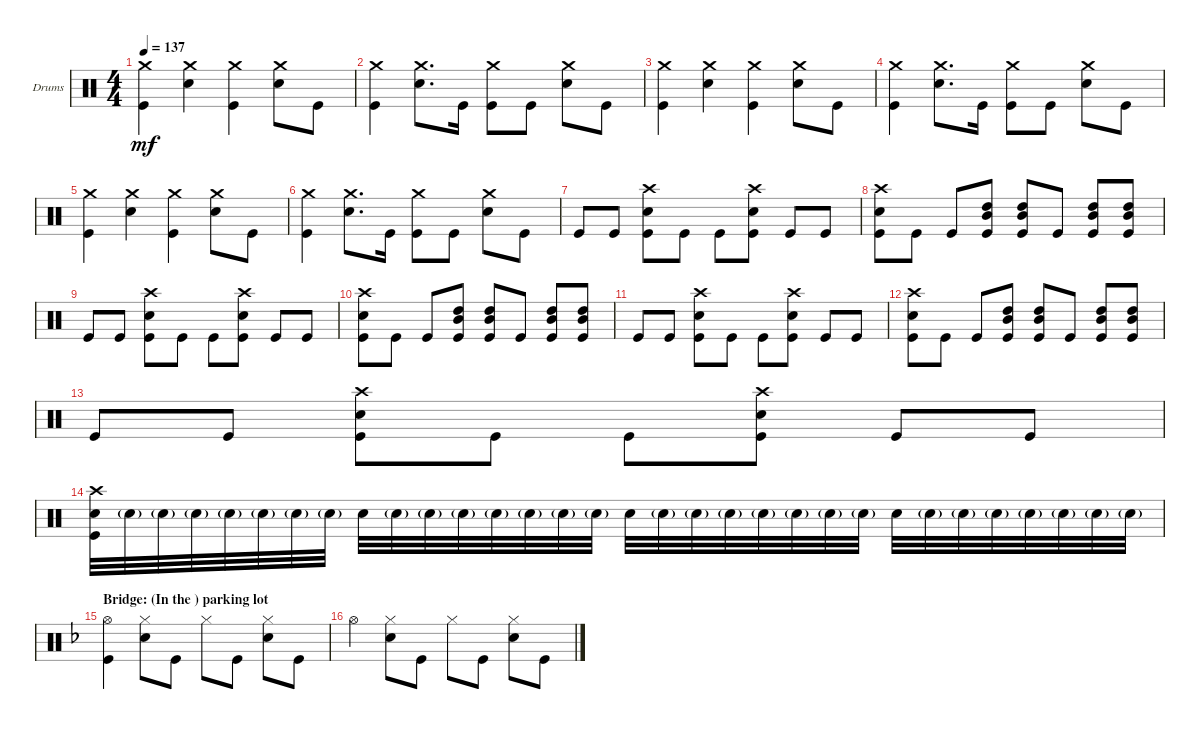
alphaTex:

\defaultSystemsLayout 4
\bracketExtendMode groupsimilarinstruments
\firstSystemTrackNameOrientation horizontal
\otherSystemsTrackNameOrientation horizontal
\track ("Drumkit" "Drums") {instrument percussion}
\staff {score}
\articulation defaults
\ts (4 4)
\tempo 137
\clef neutral
\ks c
("Kick (hit)" "Crash medium (hit)").4{dy mf} ("Snare (hit) 2" "Crash medium (hit)").4 ("Kick (hit)" "Crash medium (hit)").4 ("Snare (hit) 2" "Crash medium (hit)").8 "Kick (hit)".8 |
("Kick (hit)" "Crash medium (hit)").4 ("Snare (hit) 2" "Crash medium (hit)").8{d} "Kick (hit)".16 ("Kick (hit)" "Crash medium (hit)").8 "Kick (hit)".8 ("Snare (hit) 2" "Crash medium (hit)").8 "Kick (hit)".8 |
("Kick (hit)" "Crash medium (hit)").4 ("Snare (hit) 2" "Crash medium (hit)").4 ("Kick (hit)" "Crash medium (hit)").4 ("Snare (hit) 2" "Crash medium (hit)").8 "Kick (hit)".8 |
("Kick (hit)" "Crash medium (hit)").4 ("Snare (hit) 2" "Crash medium (hit)").8{d} "Kick (hit)".16 ("Kick (hit)" "Crash medium (hit)").8 "Kick (hit)".8 ("Snare (hit) 2" "Crash medium (hit)").8 "Kick (hit)".8 |
("Kick (hit)" "Crash medium (hit)").4 ("Snare (hit) 2" "Crash medium (hit)").4 ("Kick (hit)" "Crash medium (hit)").4 ("Snare (hit) 2" "Crash medium (hit)").8 "Kick (hit)".8 |
("Kick (hit)" "Crash medium (hit)").4 ("Snare (hit) 2" "Crash medium (hit)").8{d} "Kick (hit)".16 ("Kick (hit)" "Crash medium (hit)").8 "Kick (hit)".8 ("Snare (hit) 2" "Crash medium (hit)").8 "Kick (hit)".8 |
"Kick (hit)".8 "Kick (hit)".8 ("Kick (hit)" "Snare (hit) 2" "Crash high (hit)").8 "Kick (hit)".8 "Kick (hit)".8 ("Kick (hit)" "Snare (hit) 2" "Crash high (hit)").8 "Kick (hit)".8 "Kick (hit)".8 |
("Kick (hit)" "Snare (hit) 2" "Crash high (hit)").8 "Kick (hit)".8 "Kick (hit)".8 ("Kick (hit)" "High Tom (hit)" "Mid Tom (hit)").8 ("Kick (hit)" "High Tom (hit)" "Mid Tom (hit)").8 "Kick (hit)".8 ("Kick (hit)" "High Tom (hit)" "Mid Tom (hit)").8 ("Kick (hit)" "High Tom (hit)" "Mid Tom (hit)").8 |
"Kick (hit)".8 "Kick (hit)".8 ("Kick (hit)" "Snare (hit) 2" "Crash high (hit)").8 "Kick (hit)".8 "Kick (hit)".8 ("Kick (hit)" "Snare (hit) 2" "Crash high (hit)").8 "Kick (hit)".8 "Kick (hit)".8 |
("Kick (hit)" "Snare (hit) 2" "Crash high (hit)").8 "Kick (hit)".8 "Kick (hit)".8 ("Kick (hit)" "High Tom (hit)" "Mid Tom (hit)").8 ("Kick (hit)" "High Tom (hit)" "Mid Tom (hit)").8 "Kick (hit)".8 ("Kick (hit)" "High Tom (hit)" "Mid Tom (hit)").8 ("Kick (hit)" "High Tom (hit)" "Mid Tom (hit)").8 |
"Kick (hit)".8 "Kick (hit)".8 ("Kick (hit)" "Snare (hit) 2" "Crash high (hit)").8 "Kick (hit)".8 "Kick (hit)".8 ("Kick (hit)" "Snare (hit) 2" "Crash high (hit)").8 "Kick (hit)".8 "Kick (hit)".8 |
("Kick (hit)" "Snare (hit) 2" "Crash high (hit)").8 "Kick (hit)".8 "Kick (hit)".8 ("Kick (hit)" "High Tom (hit)" "Mid Tom (hit)").8 ("Kick (hit)" "High Tom (hit)" "Mid Tom (hit)").8 "Kick (hit)".8 ("Kick (hit)" "High Tom (hit)" "Mid Tom (hit)").8 ("Kick (hit)" "High Tom (hit)" "Mid Tom (hit)").8 |
\scale
0.212192 "Kick (hit)".8 "Kick (hit)".8 ("Kick (hit)" "Snare (hit) 2" "Crash high (hit)").8 "Kick (hit)".8 "Kick (hit)".8 ("Kick (hit)" "Snare (hit) 2" "Crash high (hit)").8 "Kick (hit)".8 "Kick (hit)".8 |
\scale
0.505261 ("Kick (hit)" "Snare (hit) 2" "Crash high (hit)").32 "Snare (hit) 2"{g}.32 "Snare (hit) 2"{g}.32 "Snare (hit) 2"{g}.32 "Snare (hit) 2"{g}.32 "Snare (hit) 2"{g}.32 "Snare (hit) 2"{g}.32 "Snare (hit) 2"{g}.32 "Snare (hit) 2".32 "Snare (hit) 2"{g}.32 "Snare (hit) 2"{g}.32 "Snare (hit) 2"{g}.32 "Snare (hit) 2"{g}.32 "Snare (hit) 2"{g}.32 "Snare (hit) 2"{g}.32 "Snare (hit) 2"{g}.32 "Snare (hit) 2".32 "Snare (hit) 2"{g}.32 "Snare (hit) 2"{g}.32 "Snare (hit) 2"{g}.32 "Snare (hit) 2"{g}.32 "Snare (hit) 2"{g}.32 "Snare (hit) 2"{g}.32 "Snare (hit) 2"{g}.32 "Snare (hit) 2".32 "Snare (hit) 2"{g}.32 "Snare (hit) 2"{g}.32 "Snare (hit) 2"{g}.32 "Snare (hit) 2"{g}.32 "Snare (hit) 2"{g}.32 "Snare (hit) 2"{g}.32 "Snare (hit) 2"{g}.32 |
\section ("" "Bridge: (In the ) parking lot")
\scale
0.279188
\ks f
("Kick (hit)" "Hi-Hat (open)").4 ("Snare (hit) 2" "Hi-Hat (closed)").8 "Kick (hit)".8 "Hi-Hat (closed)".8 "Kick (hit)".8 ("Snare (hit) 2" "Hi-Hat (closed)").8 "Kick (hit)".8 |
"Hi-Hat (open)".4 ("Snare (hit) 2" "Hi-Hat (closed)").8 "Kick (hit)".8 "Hi-Hat (closed)".8 "Kick (hit)".8 ("Snare (hit) 2" "Hi-Hat (closed)").8 "Kick (hit)".8
